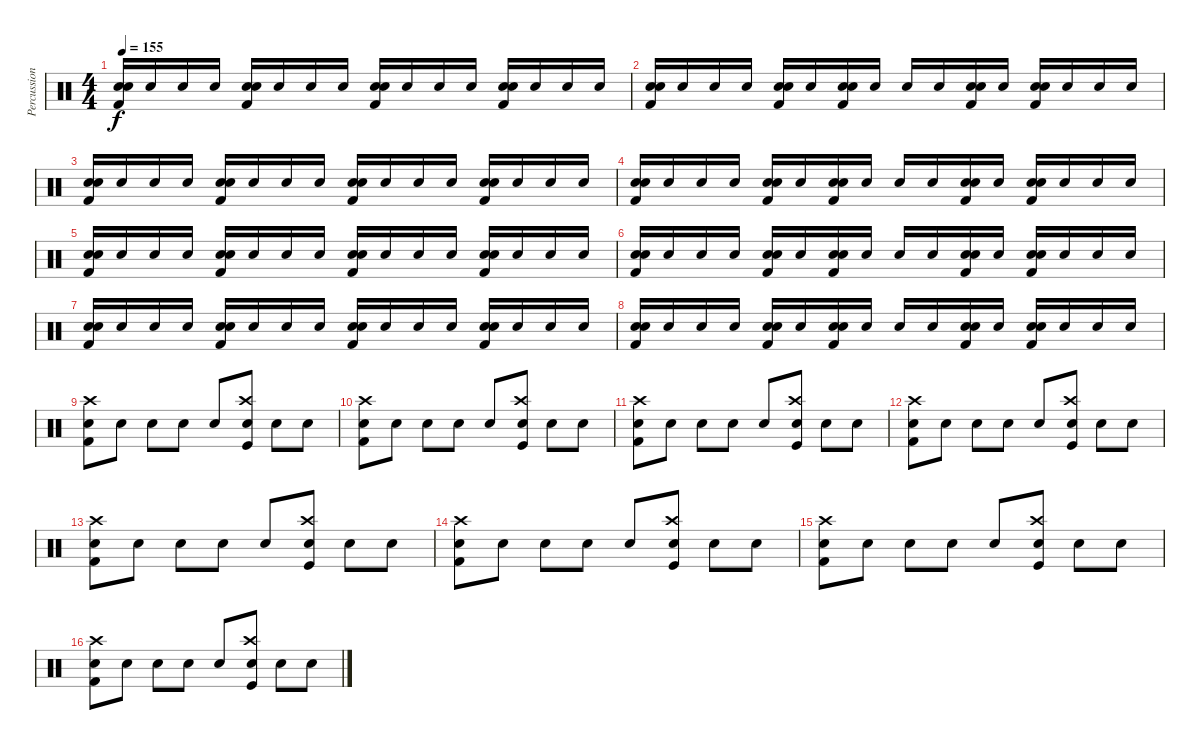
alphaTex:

\track ("Percussion" "Percussion") {instrument percussion}
\staff {score}
\articulation defaults
\ts (4 4)
\tempo 155
\clef neutral
\ks c
("Snare (hit) 2" "Snare (hit) 2" "Kick (hit) 2").16{dy f} "Snare (hit) 2".16 "Snare (hit) 2".16 "Snare (hit) 2".16 ("Snare (hit) 2" "Snare (hit) 2" "Kick (hit) 2").16 "Snare (hit) 2".16 "Snare (hit) 2".16 "Snare (hit) 2".16 ("Snare (hit) 2" "Snare (hit) 2" "Kick (hit) 2").16 "Snare (hit) 2".16 "Snare (hit) 2".16 "Snare (hit) 2".16 ("Snare (hit) 2" "Snare (hit) 2" "Kick (hit) 2").16 "Snare (hit) 2".16 "Snare (hit) 2".16 "Snare (hit) 2".16 |
("Snare (hit) 2" "Snare (hit) 2" "Kick (hit) 2").16 "Snare (hit) 2".16 "Snare (hit) 2".16 "Snare (hit) 2".16 ("Snare (hit) 2" "Snare (hit) 2" "Kick (hit) 2").16 "Snare (hit) 2".16 ("Snare (hit) 2" "Snare (hit) 2" "Kick (hit) 2").16 "Snare (hit) 2".16 "Snare (hit) 2".16 "Snare (hit) 2".16 ("Snare (hit) 2" "Snare (hit) 2" "Kick (hit) 2").16 "Snare (hit) 2".16 ("Snare (hit) 2" "Snare (hit) 2" "Kick (hit) 2").16 "Snare (hit) 2".16 "Snare (hit) 2".16 "Snare (hit) 2".16 |
("Snare (hit) 2" "Snare (hit) 2" "Kick (hit) 2").16 "Snare (hit) 2".16 "Snare (hit) 2".16 "Snare (hit) 2".16 ("Snare (hit) 2" "Snare (hit) 2" "Kick (hit) 2").16 "Snare (hit) 2".16 "Snare (hit) 2".16 "Snare (hit) 2".16 ("Snare (hit) 2" "Snare (hit) 2" "Kick (hit) 2").16 "Snare (hit) 2".16 "Snare (hit) 2".16 "Snare (hit) 2".16 ("Snare (hit) 2" "Snare (hit) 2" "Kick (hit) 2").16 "Snare (hit) 2".16 "Snare (hit) 2".16 "Snare (hit) 2".16 |
("Snare (hit) 2" "Snare (hit) 2" "Kick (hit) 2").16 "Snare (hit) 2".16 "Snare (hit) 2".16 "Snare (hit) 2".16 ("Snare (hit) 2" "Snare (hit) 2" "Kick (hit) 2").16 "Snare (hit) 2".16 ("Snare (hit) 2" "Snare (hit) 2" "Kick (hit) 2").16 "Snare (hit) 2".16 "Snare (hit) 2".16 "Snare (hit) 2".16 ("Snare (hit) 2" "Snare (hit) 2" "Kick (hit) 2").16 "Snare (hit) 2".16 ("Snare (hit) 2" "Snare (hit) 2" "Kick (hit) 2").16 "Snare (hit) 2".16 "Snare (hit) 2".16 "Snare (hit) 2".16 |
("Snare (hit) 2" "Snare (hit) 2" "Kick (hit) 2").16 "Snare (hit) 2".16 "Snare (hit) 2".16 "Snare (hit) 2".16 ("Snare (hit) 2" "Snare (hit) 2" "Kick (hit) 2").16 "Snare (hit) 2".16 "Snare (hit) 2".16 "Snare (hit) 2".16 ("Snare (hit) 2" "Snare (hit) 2" "Kick (hit) 2").16 "Snare (hit) 2".16 "Snare (hit) 2".16 "Snare (hit) 2".16 ("Snare (hit) 2" "Snare (hit) 2" "Kick (hit) 2").16 "Snare (hit) 2".16 "Snare (hit) 2".16 "Snare (hit) 2".16 |
("Snare (hit) 2" "Snare (hit) 2" "Kick (hit) 2").16 "Snare (hit) 2".16 "Snare (hit) 2".16 "Snare (hit) 2".16 ("Snare (hit) 2" "Snare (hit) 2" "Kick (hit) 2").16 "Snare (hit) 2".16 ("Snare (hit) 2" "Snare (hit) 2" "Kick (hit) 2").16 "Snare (hit) 2".16 "Snare (hit) 2".16 "Snare (hit) 2".16 ("Snare (hit) 2" "Snare (hit) 2" "Kick (hit) 2").16 "Snare (hit) 2".16 ("Snare (hit) 2" "Snare (hit) 2" "Kick (hit) 2").16 "Snare (hit) 2".16 "Snare (hit) 2".16 "Snare (hit) 2".16 |
("Snare (hit) 2" "Snare (hit) 2" "Kick (hit) 2").16 "Snare (hit) 2".16 "Snare (hit) 2".16 "Snare (hit) 2".16 ("Snare (hit) 2" "Snare (hit) 2" "Kick (hit) 2").16 "Snare (hit) 2".16 "Snare (hit) 2".16 "Snare (hit) 2".16 ("Snare (hit) 2" "Snare (hit) 2" "Kick (hit) 2").16 "Snare (hit) 2".16 "Snare (hit) 2".16 "Snare (hit) 2".16 ("Snare (hit) 2" "Snare (hit) 2" "Kick (hit) 2").16 "Snare (hit) 2".16 "Snare (hit) 2".16 "Snare (hit) 2".16 |
("Snare (hit) 2" "Snare (hit) 2" "Kick (hit) 2").16 "Snare (hit) 2".16 "Snare (hit) 2".16 "Snare (hit) 2".16 ("Snare (hit) 2" "Snare (hit) 2" "Kick (hit) 2").16 "Snare (hit) 2".16 ("Snare (hit) 2" "Snare (hit) 2" "Kick (hit) 2").16 "Snare (hit) 2".16 "Snare (hit) 2".16 "Snare (hit) 2".16 ("Snare (hit) 2" "Snare (hit) 2" "Kick (hit) 2").16 "Snare (hit) 2".16 ("Snare (hit) 2" "Snare (hit) 2" "Kick (hit) 2").16 "Snare (hit) 2".16 "Snare (hit) 2".16 "Snare (hit) 2".16 |
("Snare (hit) 2" "Crash high (hit)" "Kick (hit) 2").8 "Snare (hit) 2".8 "Snare (hit) 2".8 "Snare (hit) 2".8 "Snare (hit) 2".8 ("Snare (hit) 2" "Crash high (hit)" "Kick (hit)").8 "Snare (hit) 2".8 "Snare (hit) 2".8 |
("Snare (hit) 2" "Crash high (hit)" "Kick (hit) 2").8 "Snare (hit) 2".8 "Snare (hit) 2".8 "Snare (hit) 2".8 "Snare (hit) 2".8 ("Snare (hit) 2" "Crash high (hit)" "Kick (hit)").8 "Snare (hit) 2".8 "Snare (hit) 2".8 |
("Snare (hit) 2" "Crash high (hit)" "Kick (hit) 2").8 "Snare (hit) 2".8 "Snare (hit) 2".8 "Snare (hit) 2".8 "Snare (hit) 2".8 ("Snare (hit) 2" "Crash high (hit)" "Kick (hit)").8 "Snare (hit) 2".8 "Snare (hit) 2".8 |
("Snare (hit) 2" "Crash high (hit)" "Kick (hit) 2").8 "Snare (hit) 2".8 "Snare (hit) 2".8 "Snare (hit) 2".8 "Snare (hit) 2".8 ("Snare (hit) 2" "Crash high (hit)" "Kick (hit)").8 "Snare (hit) 2".8 "Snare (hit) 2".8 |
("Snare (hit) 2" "Crash high (hit)" "Kick (hit) 2").8 "Snare (hit) 2".8 "Snare (hit) 2".8 "Snare (hit) 2".8 "Snare (hit) 2".8 ("Snare (hit) 2" "Crash high (hit)" "Kick (hit)").8 "Snare (hit) 2".8 "Snare (hit) 2".8 |
("Snare (hit) 2" "Crash high (hit)" "Kick (hit) 2").8 "Snare (hit) 2".8 "Snare (hit) 2".8 "Snare (hit) 2".8 "Snare (hit) 2".8 ("Snare (hit) 2" "Crash high (hit)" "Kick (hit)").8 "Snare (hit) 2".8 "Snare (hit) 2".8 |
("Snare (hit) 2" "Crash high (hit)" "Kick (hit) 2").8 "Snare (hit) 2".8 "Snare (hit) 2".8 "Snare (hit) 2".8 "Snare (hit) 2".8 ("Snare (hit) 2" "Crash high (hit)" "Kick (hit)").8 "Snare (hit) 2".8 "Snare (hit) 2".8 |
("Snare (hit) 2" "Crash high (hit)" "Kick (hit) 2").8 "Snare (hit) 2".8 "Snare (hit) 2".8 "Snare (hit) 2".8 "Snare (hit) 2".8 ("Snare (hit) 2" "Crash high (hit)" "Kick (hit)").8 "Snare (hit) 2".8 "Snare (hit) 2".8
